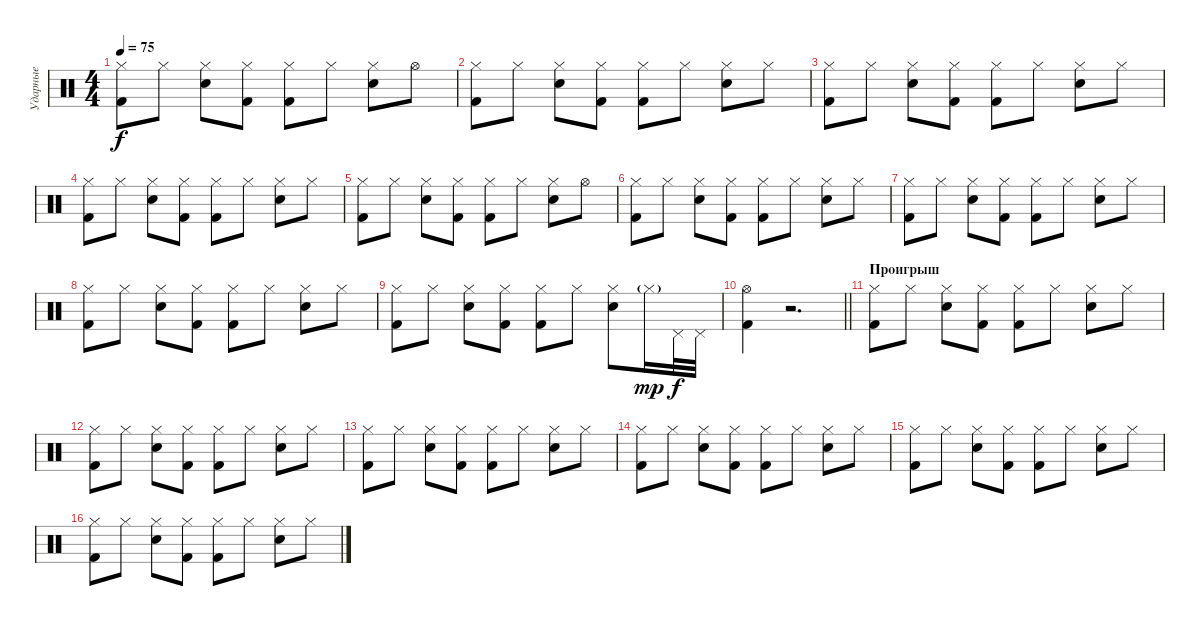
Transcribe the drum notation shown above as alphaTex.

\track ("Ударные" "Ударные") {instrument percussion}
\staff {score}
\articulation defaults
\ts (4 4)
\tempo 75
\clef neutral
\ks c
("Hi-Hat (closed)" "Kick (hit) 2").8{dy f} "Hi-Hat (closed)".8 ("Electric Snare (hit)" "Hi-Hat (closed)").8 ("Hi-Hat (closed)" "Kick (hit) 2").8 ("Hi-Hat (closed)" "Kick (hit) 2").8 "Hi-Hat (closed)".8 ("Electric Snare (hit)" "Hi-Hat (closed)").8 "Hi-Hat (open)".8 |
("Hi-Hat (closed)" "Kick (hit) 2").8 "Hi-Hat (closed)".8 ("Electric Snare (hit)" "Hi-Hat (closed)").8 ("Hi-Hat (closed)" "Kick (hit) 2").8 ("Hi-Hat (closed)" "Kick (hit) 2").8 "Hi-Hat (closed)".8 ("Electric Snare (hit)" "Hi-Hat (closed)").8 "Hi-Hat (closed)".8 |
("Hi-Hat (closed)" "Kick (hit) 2").8 "Hi-Hat (closed)".8 ("Electric Snare (hit)" "Hi-Hat (closed)").8 ("Hi-Hat (closed)" "Kick (hit) 2").8 ("Hi-Hat (closed)" "Kick (hit) 2").8 "Hi-Hat (closed)".8 ("Electric Snare (hit)" "Hi-Hat (closed)").8 "Hi-Hat (closed)".8 |
("Hi-Hat (closed)" "Kick (hit) 2").8 "Hi-Hat (closed)".8 ("Electric Snare (hit)" "Hi-Hat (closed)").8 ("Hi-Hat (closed)" "Kick (hit) 2").8 ("Hi-Hat (closed)" "Kick (hit) 2").8 "Hi-Hat (closed)".8 ("Electric Snare (hit)" "Hi-Hat (closed)").8 "Hi-Hat (closed)".8 |
("Hi-Hat (closed)" "Kick (hit) 2").8 "Hi-Hat (closed)".8 ("Electric Snare (hit)" "Hi-Hat (closed)").8 ("Hi-Hat (closed)" "Kick (hit) 2").8 ("Hi-Hat (closed)" "Kick (hit) 2").8 "Hi-Hat (closed)".8 ("Electric Snare (hit)" "Hi-Hat (closed)").8 "Hi-Hat (open)".8 |
("Hi-Hat (closed)" "Kick (hit) 2").8 "Hi-Hat (closed)".8 ("Electric Snare (hit)" "Hi-Hat (closed)").8 ("Hi-Hat (closed)" "Kick (hit) 2").8 ("Hi-Hat (closed)" "Kick (hit) 2").8 "Hi-Hat (closed)".8 ("Electric Snare (hit)" "Hi-Hat (closed)").8 "Hi-Hat (closed)".8 |
("Hi-Hat (closed)" "Kick (hit) 2").8 "Hi-Hat (closed)".8 ("Electric Snare (hit)" "Hi-Hat (closed)").8 ("Hi-Hat (closed)" "Kick (hit) 2").8 ("Hi-Hat (closed)" "Kick (hit) 2").8 "Hi-Hat (closed)".8 ("Electric Snare (hit)" "Hi-Hat (closed)").8 "Hi-Hat (closed)".8 |
("Hi-Hat (closed)" "Kick (hit) 2").8 "Hi-Hat (closed)".8 ("Electric Snare (hit)" "Hi-Hat (closed)").8 ("Hi-Hat (closed)" "Kick (hit) 2").8 ("Hi-Hat (closed)" "Kick (hit) 2").8 "Hi-Hat (closed)".8 ("Electric Snare (hit)" "Hi-Hat (closed)").8 "Hi-Hat (closed)".8 |
("Hi-Hat (closed)" "Kick (hit) 2").8 "Hi-Hat (closed)".8 ("Electric Snare (hit)" "Hi-Hat (closed)").8 ("Hi-Hat (closed)" "Kick (hit) 2").8 ("Hi-Hat (closed)" "Kick (hit) 2").8 "Hi-Hat (closed)".8 ("Electric Snare (hit)" "Hi-Hat (closed)").8 "Hi-Hat (closed)"{g}.16{dy mp} "Pedal Hi-Hat (hit)".32{dy f} "Pedal Hi-Hat (hit)".32 |
\barLineRight lightlight
("Kick (hit) 2" "Hi-Hat (open)").4 r.2{d} |
\section ("" "Проигрыш")
("Hi-Hat (closed)" "Kick (hit) 2").8 "Hi-Hat (closed)".8 ("Electric Snare (hit)" "Hi-Hat (closed)").8 ("Hi-Hat (closed)" "Kick (hit) 2").8 ("Hi-Hat (closed)" "Kick (hit) 2").8 "Hi-Hat (closed)".8 ("Electric Snare (hit)" "Hi-Hat (closed)").8 "Hi-Hat (closed)".8 |
("Hi-Hat (closed)" "Kick (hit) 2").8 "Hi-Hat (closed)".8 ("Electric Snare (hit)" "Hi-Hat (closed)").8 ("Hi-Hat (closed)" "Kick (hit) 2").8 ("Hi-Hat (closed)" "Kick (hit) 2").8 "Hi-Hat (closed)".8 ("Electric Snare (hit)" "Hi-Hat (closed)").8 "Hi-Hat (closed)".8 |
("Hi-Hat (closed)" "Kick (hit) 2").8 "Hi-Hat (closed)".8 ("Electric Snare (hit)" "Hi-Hat (closed)").8 ("Hi-Hat (closed)" "Kick (hit) 2").8 ("Hi-Hat (closed)" "Kick (hit) 2").8 "Hi-Hat (closed)".8 ("Electric Snare (hit)" "Hi-Hat (closed)").8 "Hi-Hat (closed)".8 |
("Hi-Hat (closed)" "Kick (hit) 2").8 "Hi-Hat (closed)".8 ("Electric Snare (hit)" "Hi-Hat (closed)").8 ("Hi-Hat (closed)" "Kick (hit) 2").8 ("Hi-Hat (closed)" "Kick (hit) 2").8 "Hi-Hat (closed)".8 ("Electric Snare (hit)" "Hi-Hat (closed)").8 "Hi-Hat (closed)".8 |
("Hi-Hat (closed)" "Kick (hit) 2").8 "Hi-Hat (closed)".8 ("Electric Snare (hit)" "Hi-Hat (closed)").8 ("Hi-Hat (closed)" "Kick (hit) 2").8 ("Hi-Hat (closed)" "Kick (hit) 2").8 "Hi-Hat (closed)".8 ("Electric Snare (hit)" "Hi-Hat (closed)").8 "Hi-Hat (closed)".8 |
("Hi-Hat (closed)" "Kick (hit) 2").8 "Hi-Hat (closed)".8 ("Electric Snare (hit)" "Hi-Hat (closed)").8 ("Hi-Hat (closed)" "Kick (hit) 2").8 ("Hi-Hat (closed)" "Kick (hit) 2").8 "Hi-Hat (closed)".8 ("Electric Snare (hit)" "Hi-Hat (closed)").8 "Hi-Hat (closed)".8
